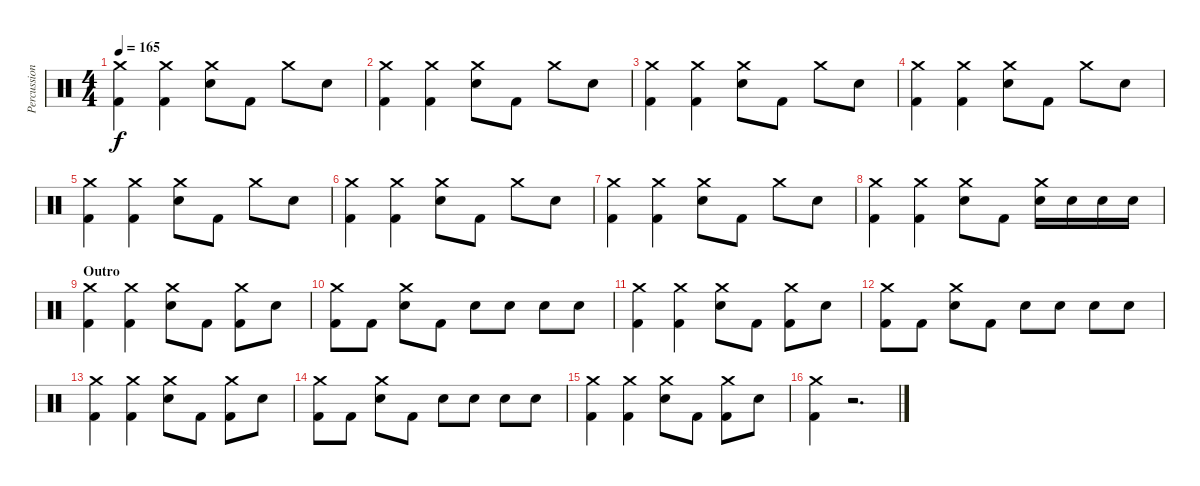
\track ("Percussion" "Percussion") {instrument percussion}
\staff {score}
\articulation defaults
\ts (4 4)
\tempo 165
\clef neutral
\ks c
("Crash medium (hit)" "Kick (hit) 2").4{dy f} ("Crash medium (hit)" "Kick (hit) 2").4 ("Crash medium (hit)" "Snare (hit) 2").8 "Kick (hit) 2".8 "Crash medium (hit)".8 "Snare (hit) 2".8 |
("Crash medium (hit)" "Kick (hit) 2").4 ("Crash medium (hit)" "Kick (hit) 2").4 ("Crash medium (hit)" "Snare (hit) 2").8 "Kick (hit) 2".8 "Crash medium (hit)".8 "Snare (hit) 2".8 |
("Crash medium (hit)" "Kick (hit) 2").4 ("Crash medium (hit)" "Kick (hit) 2").4 ("Crash medium (hit)" "Snare (hit) 2").8 "Kick (hit) 2".8 "Crash medium (hit)".8 "Snare (hit) 2".8 |
("Crash medium (hit)" "Kick (hit) 2").4 ("Crash medium (hit)" "Kick (hit) 2").4 ("Crash medium (hit)" "Snare (hit) 2").8 "Kick (hit) 2".8 "Crash medium (hit)".8 "Snare (hit) 2".8 |
("Crash medium (hit)" "Kick (hit) 2").4 ("Crash medium (hit)" "Kick (hit) 2").4 ("Crash medium (hit)" "Snare (hit) 2").8 "Kick (hit) 2".8 "Crash medium (hit)".8 "Snare (hit) 2".8 |
("Crash medium (hit)" "Kick (hit) 2").4 ("Crash medium (hit)" "Kick (hit) 2").4 ("Crash medium (hit)" "Snare (hit) 2").8 "Kick (hit) 2".8 "Crash medium (hit)".8 "Snare (hit) 2".8 |
("Crash medium (hit)" "Kick (hit) 2").4 ("Crash medium (hit)" "Kick (hit) 2").4 ("Crash medium (hit)" "Snare (hit) 2").8 "Kick (hit) 2".8 "Crash medium (hit)".8 "Snare (hit) 2".8 |
("Crash medium (hit)" "Kick (hit) 2").4 ("Crash medium (hit)" "Kick (hit) 2").4 ("Crash medium (hit)" "Snare (hit) 2").8 "Kick (hit) 2".8 ("Crash medium (hit)" "Snare (hit) 2").16 "Snare (hit) 2".16 "Snare (hit) 2".16 "Snare (hit) 2".16 |
\section ("" "Outro")
("Crash medium (hit)" "Kick (hit) 2").4 ("Crash medium (hit)" "Kick (hit) 2").4 ("Crash medium (hit)" "Snare (hit) 2").8 "Kick (hit) 2".8 ("Crash medium (hit)" "Kick (hit) 2").8 "Snare (hit) 2".8 |
("Crash medium (hit)" "Kick (hit) 2").8 "Kick (hit) 2".8 ("Crash medium (hit)" "Snare (hit) 2").8 "Kick (hit) 2".8 "Snare (hit) 2".8 "Snare (hit) 2".8 "Snare (hit) 2".8 "Snare (hit) 2".8 |
("Crash medium (hit)" "Kick (hit) 2").4 ("Crash medium (hit)" "Kick (hit) 2").4 ("Crash medium (hit)" "Snare (hit) 2").8 "Kick (hit) 2".8 ("Crash medium (hit)" "Kick (hit) 2").8 "Snare (hit) 2".8 |
("Crash medium (hit)" "Kick (hit) 2").8 "Kick (hit) 2".8 ("Crash medium (hit)" "Snare (hit) 2").8 "Kick (hit) 2".8 "Snare (hit) 2".8 "Snare (hit) 2".8 "Snare (hit) 2".8 "Snare (hit) 2".8 |
("Crash medium (hit)" "Kick (hit) 2").4 ("Crash medium (hit)" "Kick (hit) 2").4 ("Crash medium (hit)" "Snare (hit) 2").8 "Kick (hit) 2".8 ("Crash medium (hit)" "Kick (hit) 2").8 "Snare (hit) 2".8 |
("Crash medium (hit)" "Kick (hit) 2").8 "Kick (hit) 2".8 ("Crash medium (hit)" "Snare (hit) 2").8 "Kick (hit) 2".8 "Snare (hit) 2".8 "Snare (hit) 2".8 "Snare (hit) 2".8 "Snare (hit) 2".8 |
("Crash medium (hit)" "Kick (hit) 2").4 ("Crash medium (hit)" "Kick (hit) 2").4 ("Crash medium (hit)" "Snare (hit) 2").8 "Kick (hit) 2".8 ("Crash medium (hit)" "Kick (hit) 2").8 "Snare (hit) 2".8 |
("Crash medium (hit)" "Kick (hit) 2").4 r.2{d}
